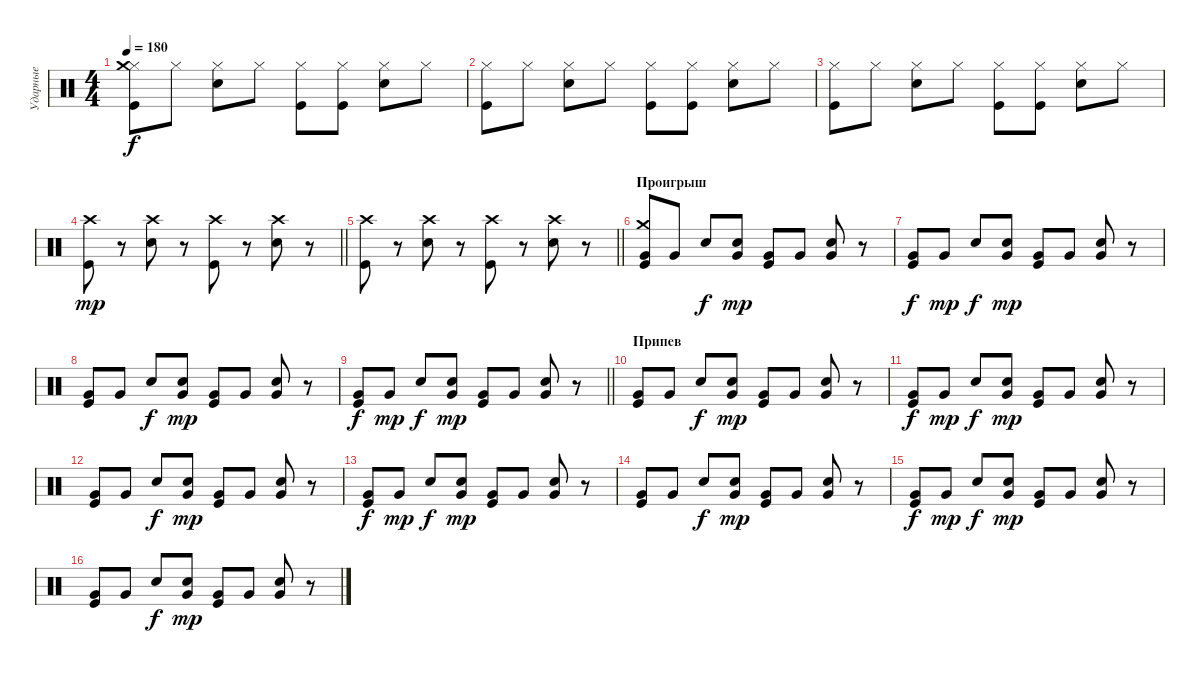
\track ("Ударные" "Ударные") {instrument percussion}
\staff {score}
\articulation defaults
\ts (4 4)
\tempo 180
\clef neutral
\ks c
("Hi-Hat (closed)" "Kick (hit)" "Crash medium (hit)").8{dy f} "Hi-Hat (closed)".8 ("Hi-Hat (closed)" "Electric Snare (hit)").8 "Hi-Hat (closed)".8 ("Hi-Hat (closed)" "Kick (hit)").8 ("Hi-Hat (closed)" "Kick (hit)").8 ("Hi-Hat (closed)" "Electric Snare (hit)").8 "Hi-Hat (closed)".8 |
("Hi-Hat (closed)" "Kick (hit)").8 "Hi-Hat (closed)".8 ("Hi-Hat (closed)" "Electric Snare (hit)").8 "Hi-Hat (closed)".8 ("Hi-Hat (closed)" "Kick (hit)").8 ("Hi-Hat (closed)" "Kick (hit)").8 ("Hi-Hat (closed)" "Electric Snare (hit)").8 "Hi-Hat (closed)".8 |
("Hi-Hat (closed)" "Kick (hit)").8 "Hi-Hat (closed)".8 ("Hi-Hat (closed)" "Electric Snare (hit)").8 "Hi-Hat (closed)".8 ("Hi-Hat (closed)" "Kick (hit)").8 ("Hi-Hat (closed)" "Kick (hit)").8 ("Hi-Hat (closed)" "Electric Snare (hit)").8 "Hi-Hat (closed)".8 |
\barLineRight lightlight
("Kick (hit)" "Crash high (hit)").8{dy mp} r.8 ("Electric Snare (hit)" "Crash high (hit)").8 r.8 ("Kick (hit)" "Crash high (hit)").8 r.8 ("Electric Snare (hit)" "Crash high (hit)").8 r.8 |
\barLineRight lightlight
("Kick (hit)" "Crash high (hit)").8 r.8 ("Electric Snare (hit)" "Crash high (hit)").8 r.8 ("Kick (hit)" "Crash high (hit)").8 r.8 ("Electric Snare (hit)" "Crash high (hit)").8 r.8 |
\section ("" "Проигрыш")
("Kick (hit)" "Very Low Tom (hit)" "Crash medium (hit)").8 "Very Low Tom (hit)".8 "Electric Snare (hit)".8{dy f} ("Electric Snare (hit)" "Very Low Tom (hit)").8{dy mp} ("Kick (hit)" "Very Low Tom (hit)").8 "Very Low Tom (hit)".8 ("Electric Snare (hit)" "Very Low Tom (hit)").8 r.8 |
("Kick (hit)" "Very Low Tom (hit)").8{dy f} "Very Low Tom (hit)".8{dy mp} "Electric Snare (hit)".8{dy f} ("Electric Snare (hit)" "Very Low Tom (hit)").8{dy mp} ("Kick (hit)" "Very Low Tom (hit)").8 "Very Low Tom (hit)".8 ("Electric Snare (hit)" "Very Low Tom (hit)").8 r.8 |
("Kick (hit)" "Very Low Tom (hit)").8 "Very Low Tom (hit)".8 "Electric Snare (hit)".8{dy f} ("Electric Snare (hit)" "Very Low Tom (hit)").8{dy mp} ("Kick (hit)" "Very Low Tom (hit)").8 "Very Low Tom (hit)".8 ("Electric Snare (hit)" "Very Low Tom (hit)").8 r.8 |
\barLineRight lightlight
("Kick (hit)" "Very Low Tom (hit)").8{dy f} "Very Low Tom (hit)".8{dy mp} "Electric Snare (hit)".8{dy f} ("Electric Snare (hit)" "Very Low Tom (hit)").8{dy mp} ("Kick (hit)" "Very Low Tom (hit)").8 "Very Low Tom (hit)".8 ("Electric Snare (hit)" "Very Low Tom (hit)").8 r.8 |
\section ("" "Припев")
("Kick (hit)" "Very Low Tom (hit)").8 "Very Low Tom (hit)".8 "Electric Snare (hit)".8{dy f} ("Electric Snare (hit)" "Very Low Tom (hit)").8{dy mp} ("Kick (hit)" "Very Low Tom (hit)").8 "Very Low Tom (hit)".8 ("Electric Snare (hit)" "Very Low Tom (hit)").8 r.8 |
("Kick (hit)" "Very Low Tom (hit)").8{dy f} "Very Low Tom (hit)".8{dy mp} "Electric Snare (hit)".8{dy f} ("Electric Snare (hit)" "Very Low Tom (hit)").8{dy mp} ("Kick (hit)" "Very Low Tom (hit)").8 "Very Low Tom (hit)".8 ("Electric Snare (hit)" "Very Low Tom (hit)").8 r.8 |
("Kick (hit)" "Very Low Tom (hit)").8 "Very Low Tom (hit)".8 "Electric Snare (hit)".8{dy f} ("Electric Snare (hit)" "Very Low Tom (hit)").8{dy mp} ("Kick (hit)" "Very Low Tom (hit)").8 "Very Low Tom (hit)".8 ("Electric Snare (hit)" "Very Low Tom (hit)").8 r.8 |
("Kick (hit)" "Very Low Tom (hit)").8{dy f} "Very Low Tom (hit)".8{dy mp} "Electric Snare (hit)".8{dy f} ("Electric Snare (hit)" "Very Low Tom (hit)").8{dy mp} ("Kick (hit)" "Very Low Tom (hit)").8 "Very Low Tom (hit)".8 ("Electric Snare (hit)" "Very Low Tom (hit)").8 r.8 |
("Kick (hit)" "Very Low Tom (hit)").8 "Very Low Tom (hit)".8 "Electric Snare (hit)".8{dy f} ("Electric Snare (hit)" "Very Low Tom (hit)").8{dy mp} ("Kick (hit)" "Very Low Tom (hit)").8 "Very Low Tom (hit)".8 ("Electric Snare (hit)" "Very Low Tom (hit)").8 r.8 |
("Kick (hit)" "Very Low Tom (hit)").8{dy f} "Very Low Tom (hit)".8{dy mp} "Electric Snare (hit)".8{dy f} ("Electric Snare (hit)" "Very Low Tom (hit)").8{dy mp} ("Kick (hit)" "Very Low Tom (hit)").8 "Very Low Tom (hit)".8 ("Electric Snare (hit)" "Very Low Tom (hit)").8 r.8 |
("Kick (hit)" "Very Low Tom (hit)").8 "Very Low Tom (hit)".8 "Electric Snare (hit)".8{dy f} ("Electric Snare (hit)" "Very Low Tom (hit)").8{dy mp} ("Kick (hit)" "Very Low Tom (hit)").8 "Very Low Tom (hit)".8 ("Electric Snare (hit)" "Very Low Tom (hit)").8 r.8
